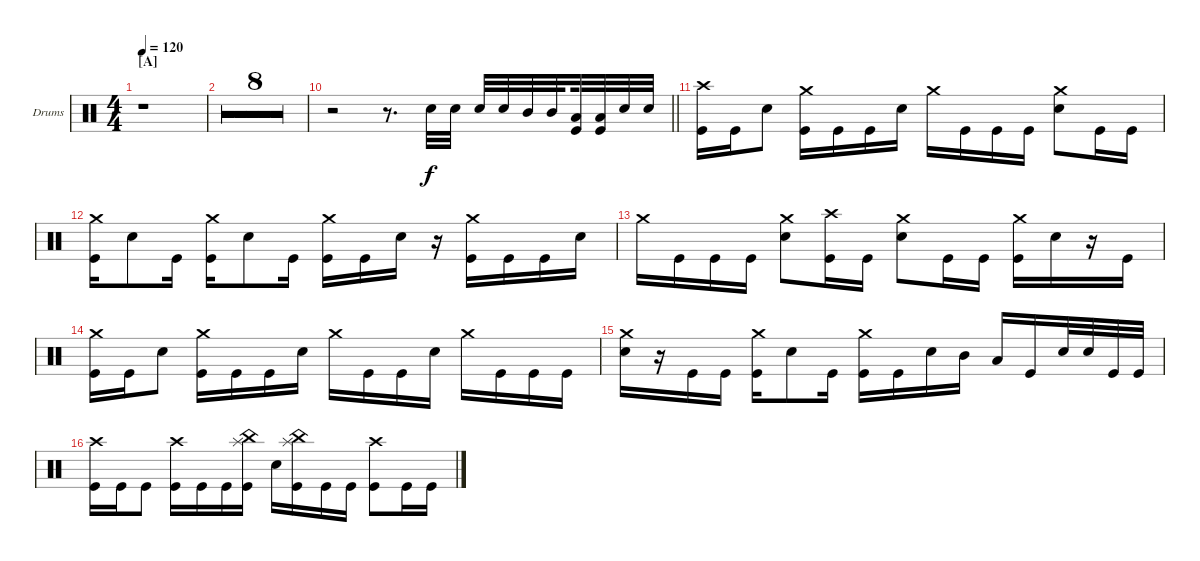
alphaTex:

\bracketExtendMode groupsimilarinstruments
\firstSystemTrackNameOrientation horizontal
\otherSystemsTrackNameOrientation horizontal
\track ("Drumkit" "Drums") {multiBarRest instrument percussion}
\staff {score}
\articulation defaults
\ts (4 4)
\beaming (8 2 2 2 2)
\section ("A" "")
\tempo 120
\clef neutral
\ks c
r.1{dy f} |
|
|
|
|
|
|
|
|
\barLineRight lightlight
r.2 r.8{d} "Snare (hit) 2".32 "Snare (hit) 2".32{beam split} "Snare (hit) 2".32{beam merge} "Snare (hit) 2".32{beam merge} "Mid Tom (hit)".32 "Mid Tom (hit)".32{beam splitsecondary} ("Low Tom (hit)" "Kick (hit)").32 ("Low Tom (hit)" "Kick (hit)").32 "Snare (hit) 2".32 "Snare (hit) 2".32 |
("Crash high (hit)" "Kick (hit)").16 "Kick (hit)".16 "Snare (hit) 2".8 ("Crash medium (hit)" "Kick (hit)").16 "Kick (hit)".16 "Kick (hit)".16 "Snare (hit) 2".16 "Crash medium (hit)".16 "Kick (hit)".16 "Kick (hit)".16 "Kick (hit)".16 ("Crash medium (hit)" "Snare (hit) 2").8 "Kick (hit)".16 "Kick (hit)".16 |
("Crash medium (hit)" "Kick (hit)").16 "Snare (hit) 2".8 "Kick (hit)".16 ("Crash medium (hit)" "Kick (hit)").16 "Snare (hit) 2".8 "Kick (hit)".16 ("Crash medium (hit)" "Kick (hit)").16 "Kick (hit)".16 "Snare (hit) 2".16 r.16 ("Crash medium (hit)" "Kick (hit)").16 "Kick (hit)".16 "Kick (hit)".16 "Snare (hit) 2".16 |
"Crash medium (hit)".16 "Kick (hit)".16 "Kick (hit)".16 "Kick (hit)".16 ("Crash medium (hit)" "Snare (hit) 2").8 ("Crash high (hit)" "Kick (hit)").16 "Kick (hit)".16 ("Crash medium (hit)" "Snare (hit) 2").8 "Kick (hit)".16 "Kick (hit)".16 ("Crash medium (hit)" "Kick (hit)").16 "Snare (hit) 2".16 r.16 "Kick (hit)".16 |
("Crash medium (hit)" "Kick (hit)").16 "Kick (hit)".16 "Snare (hit) 2".8 ("Crash medium (hit)" "Kick (hit)").16 "Kick (hit)".16 "Kick (hit)".16 "Snare (hit) 2".16 "Crash medium (hit)".16 "Kick (hit)".16 "Kick (hit)".16 "Snare (hit) 2".16 "Crash medium (hit)".16 "Kick (hit)".16 "Kick (hit)".16 "Kick (hit)".16 |
("Crash medium (hit)" "Snare (hit) 2").16 r.16 "Kick (hit)".16 "Kick (hit)".16 ("Crash medium (hit)" "Kick (hit)").16 "Snare (hit) 2".8 "Kick (hit)".16 ("Crash medium (hit)" "Kick (hit)").16 "Kick (hit)".16 "Snare (hit) 2".16 "Mid Tom (hit)".16 "Low Tom (hit)".16 "Kick (hit)".16 "Snare (hit) 2".32 "Snare (hit) 2".32 "Kick (hit)".32 "Kick (hit)".32 |
("Crash high (hit)" "Kick (hit)").16 "Kick (hit)".16 "Kick (hit)".8 ("Crash high (hit)" "Kick (hit)").16 "Kick (hit)".16 "Kick (hit)".16 ("China (hit)" "Splash (hit)" "Kick (hit)").16 "Snare (hit) 2".16 ("China (hit)" "Splash (hit)" "Kick (hit)").16 "Kick (hit)".16 "Kick (hit)".16 ("Crash high (hit)" "Kick (hit)").8 "Kick (hit)".16 "Kick (hit)".16
